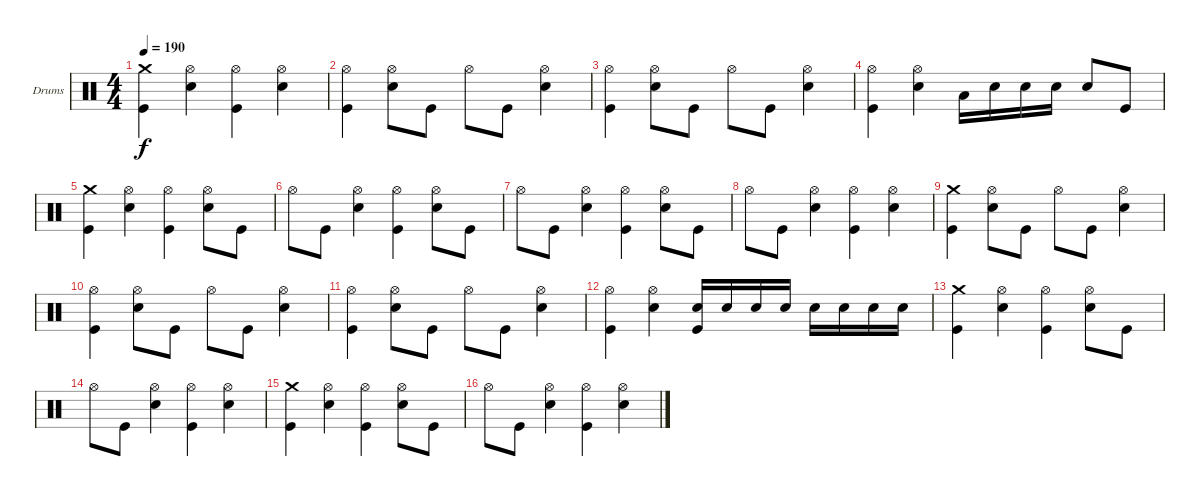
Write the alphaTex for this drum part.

\bracketExtendMode groupsimilarinstruments
\firstSystemTrackNameOrientation horizontal
\otherSystemsTrackNameOrientation horizontal
\track ("Drumkit" "Drums") {instrument percussion}
\staff {score}
\articulation defaults
\ts (4 4)
\tempo 190
\clef neutral
\ks c
("Crash medium (hit)" "Kick (hit)").4{dy f} ("Snare (hit) 2" "Hi-Hat (open)").4 ("Hi-Hat (open)" "Kick (hit)").4 ("Hi-Hat (open)" "Snare (hit) 2").4 |
("Kick (hit)" "Hi-Hat (open)").4 ("Hi-Hat (open)" "Snare (hit) 2").8 "Kick (hit)".8 "Hi-Hat (open)".8 "Kick (hit)".8 ("Hi-Hat (open)" "Snare (hit) 2").4 |
("Hi-Hat (open)" "Kick (hit)").4 ("Snare (hit) 2" "Hi-Hat (open)").8 "Kick (hit)".8 "Hi-Hat (open)".8 "Kick (hit)".8 ("Hi-Hat (open)" "Snare (hit) 2").4 |
("Kick (hit)" "Hi-Hat (open)").4 ("Hi-Hat (open)" "Snare (hit) 2").4 "Low Tom (hit)".16 "Snare (hit) 2".16 "Snare (hit) 2".16 "Snare (hit) 2".16 "Snare (hit) 2".8 "Kick (hit)".8 |
("Crash medium (hit)" "Kick (hit)").4 ("Snare (hit) 2" "Hi-Hat (open)").4 ("Hi-Hat (open)" "Kick (hit)").4 ("Hi-Hat (open)" "Snare (hit) 2").8 "Kick (hit)".8 |
"Hi-Hat (open)".8 "Kick (hit)".8 ("Hi-Hat (open)" "Snare (hit) 2").4 ("Hi-Hat (open)" "Kick (hit)").4 ("Hi-Hat (open)" "Snare (hit) 2").8 "Kick (hit)".8 |
"Hi-Hat (open)".8 "Kick (hit)".8 ("Snare (hit) 2" "Hi-Hat (open)").4 ("Hi-Hat (open)" "Kick (hit)").4 ("Hi-Hat (open)" "Snare (hit) 2").8 "Kick (hit)".8 |
"Hi-Hat (open)".8 "Kick (hit)".8 ("Hi-Hat (open)" "Snare (hit) 2").4 ("Hi-Hat (open)" "Kick (hit)").4 ("Hi-Hat (open)" "Snare (hit) 2").4 |
("Crash medium (hit)" "Kick (hit)").4 ("Snare (hit) 2" "Hi-Hat (open)").8 "Kick (hit)".8 "Hi-Hat (open)".8 "Kick (hit)".8 ("Hi-Hat (open)" "Snare (hit) 2").4 |
("Kick (hit)" "Hi-Hat (open)").4 ("Hi-Hat (open)" "Snare (hit) 2").8 "Kick (hit)".8 "Hi-Hat (open)".8 "Kick (hit)".8 ("Hi-Hat (open)" "Snare (hit) 2").4 |
("Hi-Hat (open)" "Kick (hit)").4 ("Snare (hit) 2" "Hi-Hat (open)").8 "Kick (hit)".8 "Hi-Hat (open)".8 "Kick (hit)".8 ("Hi-Hat (open)" "Snare (hit) 2").4 |
("Kick (hit)" "Hi-Hat (open)").4 ("Hi-Hat (open)" "Snare (hit) 2").4 ("Snare (hit) 2" "Kick (hit)").16 "Snare (hit) 2".16 "Snare (hit) 2".16 "Snare (hit) 2".16 "Snare (hit) 2".16 "Snare (hit) 2".16 "Snare (hit) 2".16 "Snare (hit) 2".16 |
("Crash medium (hit)" "Kick (hit)").4 ("Snare (hit) 2" "Hi-Hat (open)").4 ("Hi-Hat (open)" "Kick (hit)").4 ("Hi-Hat (open)" "Snare (hit) 2").8 "Kick (hit)".8 |
"Hi-Hat (open)".8 "Kick (hit)".8 ("Hi-Hat (open)" "Snare (hit) 2").4 ("Hi-Hat (open)" "Kick (hit)").4 ("Hi-Hat (open)" "Snare (hit) 2").4 |
("Crash medium (hit)" "Kick (hit)").4 ("Snare (hit) 2" "Hi-Hat (open)").4 ("Hi-Hat (open)" "Kick (hit)").4 ("Hi-Hat (open)" "Snare (hit) 2").8 "Kick (hit)".8 |
"Hi-Hat (open)".8 "Kick (hit)".8 ("Hi-Hat (open)" "Snare (hit) 2").4 ("Hi-Hat (open)" "Kick (hit)").4 ("Hi-Hat (open)" "Snare (hit) 2").4
